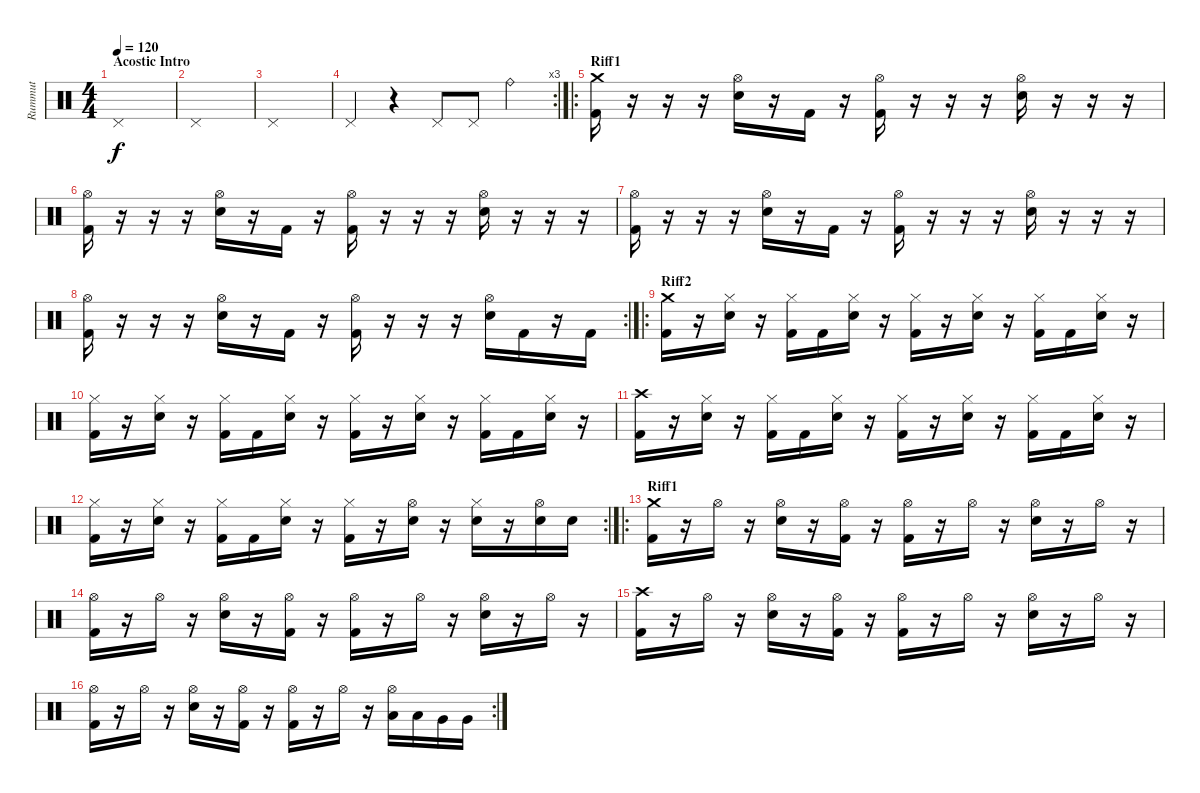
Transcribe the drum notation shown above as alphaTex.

\track ("Rummut" "Rummut") {instrument percussion}
\staff {score}
\articulation defaults
\ts (4 4)
\section ("" "Acostic Intro")
\tempo 120
\clef neutral
\ks c "Pedal Hi-Hat (hit)".1{dy f}
|
"Pedal Hi-Hat (hit)".1 |
"Pedal Hi-Hat (hit)".1 |
\rc 3 "Pedal Hi-Hat (hit)".4
r.4 "Pedal Hi-Hat (hit)".8 "Pedal Hi-Hat (hit)".8 "Ride (bell)".4 |
\ro
\section ("" "Riff1")
("Crash medium (hit)" "Kick (hit) 2").16 r.16 r.16 r.16 ("Hi-Hat (open)" "Snare (hit) 2").16 r.16 "Kick (hit) 2".16 r.16 ("Hi-Hat (open)" "Kick (hit) 2").16 r.16 r.16 r.16 ("Hi-Hat (open)" "Snare (hit) 2").16 r.16 r.16 r.16 |
("Hi-Hat (open)" "Kick (hit) 2").16 r.16 r.16 r.16 ("Hi-Hat (open)" "Snare (hit) 2").16 r.16 "Kick (hit) 2".16 r.16 ("Hi-Hat (open)" "Kick (hit) 2").16 r.16 r.16 r.16 ("Hi-Hat (open)" "Snare (hit) 2").16 r.16 r.16 r.16 |
("Hi-Hat (open)" "Kick (hit) 2").16 r.16 r.16 r.16 ("Hi-Hat (open)" "Snare (hit) 2").16 r.16 "Kick (hit) 2".16 r.16 ("Hi-Hat (open)" "Kick (hit) 2").16 r.16 r.16 r.16 ("Hi-Hat (open)" "Snare (hit) 2").16 r.16 r.16 r.16 |
\rc 2
("Hi-Hat (open)" "Kick (hit) 2").16 r.16 r.16 r.16 ("Hi-Hat (open)" "Snare (hit) 2").16 r.16 "Kick (hit) 2".16 r.16 ("Hi-Hat (open)" "Kick (hit) 2").16 r.16 r.16 r.16 ("Hi-Hat (open)" "Snare (hit) 2").16 "Kick (hit) 2".16 r.16 "Kick (hit) 2".16 |
\ro
\section ("" "Riff2")
("Crash medium (hit)" "Kick (hit) 2").16 r.16 ("Hi-Hat (closed)" "Snare (hit) 2").16 r.16 ("Hi-Hat (closed)" "Kick (hit) 2").16 "Kick (hit) 2".16 ("Hi-Hat (closed)" "Snare (hit) 2").16 r.16 ("Hi-Hat (closed)" "Kick (hit) 2").16 r.16 ("Hi-Hat (closed)" "Snare (hit) 2").16 r.16 ("Hi-Hat (closed)" "Kick (hit) 2").16 "Kick (hit) 2".16 ("Hi-Hat (closed)" "Snare (hit) 2").16 r.16 |
("Hi-Hat (closed)" "Kick (hit) 2").16 r.16 ("Hi-Hat (closed)" "Snare (hit) 2").16 r.16 ("Hi-Hat (closed)" "Kick (hit) 2").16 "Kick (hit) 2".16 ("Hi-Hat (closed)" "Snare (hit) 2").16 r.16 ("Hi-Hat (closed)" "Kick (hit) 2").16 r.16 ("Hi-Hat (closed)" "Snare (hit) 2").16 r.16 ("Hi-Hat (closed)" "Kick (hit) 2").16 "Kick (hit) 2".16 ("Hi-Hat (closed)" "Snare (hit) 2").16 r.16 |
("Crash high (hit)" "Kick (hit) 2").16 r.16 ("Hi-Hat (closed)" "Snare (hit) 2").16 r.16 ("Hi-Hat (closed)" "Kick (hit) 2").16 "Kick (hit) 2".16 ("Hi-Hat (closed)" "Snare (hit) 2").16 r.16 ("Hi-Hat (closed)" "Kick (hit) 2").16 r.16 ("Hi-Hat (closed)" "Snare (hit) 2").16 r.16 ("Hi-Hat (closed)" "Kick (hit) 2").16 "Kick (hit) 2".16 ("Hi-Hat (closed)" "Snare (hit) 2").16 r.16 |
\rc 2
("Hi-Hat (closed)" "Kick (hit) 2").16 r.16 ("Hi-Hat (closed)" "Snare (hit) 2").16 r.16 ("Hi-Hat (closed)" "Kick (hit) 2").16 "Kick (hit) 2".16 ("Hi-Hat (closed)" "Snare (hit) 2").16 r.16 ("Hi-Hat (closed)" "Kick (hit) 2").16 r.16 ("Hi-Hat (open)" "Snare (hit) 2").16 r.16 ("Hi-Hat (closed)" "Snare (hit) 2").16 r.16 ("Hi-Hat (open)" "Snare (hit) 2").16 "Snare (hit) 2".16 |
\ro
\section ("" "Riff1")
("Crash medium (hit)" "Kick (hit) 2").16 r.16 "Hi-Hat (open)".16 r.16 ("Hi-Hat (open)" "Snare (hit) 2").16 r.16 ("Hi-Hat (open)" "Kick (hit) 2").16 r.16 ("Hi-Hat (open)" "Kick (hit) 2").16 r.16 "Hi-Hat (open)".16 r.16 ("Hi-Hat (open)" "Snare (hit) 2").16 r.16 "Hi-Hat (open)".16 r.16 |
("Hi-Hat (open)" "Kick (hit) 2").16 r.16 "Hi-Hat (open)".16 r.16 ("Hi-Hat (open)" "Snare (hit) 2").16 r.16 ("Hi-Hat (open)" "Kick (hit) 2").16 r.16 ("Hi-Hat (open)" "Kick (hit) 2").16 r.16 "Hi-Hat (open)".16 r.16 ("Hi-Hat (open)" "Snare (hit) 2").16 r.16 "Hi-Hat (open)".16 r.16 |
("Crash high (hit)" "Kick (hit) 2").16 r.16 "Hi-Hat (open)".16 r.16 ("Hi-Hat (open)" "Snare (hit) 2").16 r.16 ("Hi-Hat (open)" "Kick (hit) 2").16 r.16 ("Hi-Hat (open)" "Kick (hit) 2").16 r.16 "Hi-Hat (open)".16 r.16 ("Hi-Hat (open)" "Snare (hit) 2").16 r.16 "Hi-Hat (open)".16 r.16 |
\rc 2
("Hi-Hat (open)" "Kick (hit) 2").16 r.16 "Hi-Hat (open)".16 r.16 ("Hi-Hat (open)" "Snare (hit) 2").16 r.16 ("Hi-Hat (open)" "Kick (hit) 2").16 r.16 ("Hi-Hat (open)" "Kick (hit) 2").16 r.16 "Hi-Hat (open)".16 r.16 ("Hi-Hat (open)" "Low Tom (hit)").16 "Low Tom (hit)".16 "Very Low Tom (hit)".16 "Very Low Tom (hit)".16
